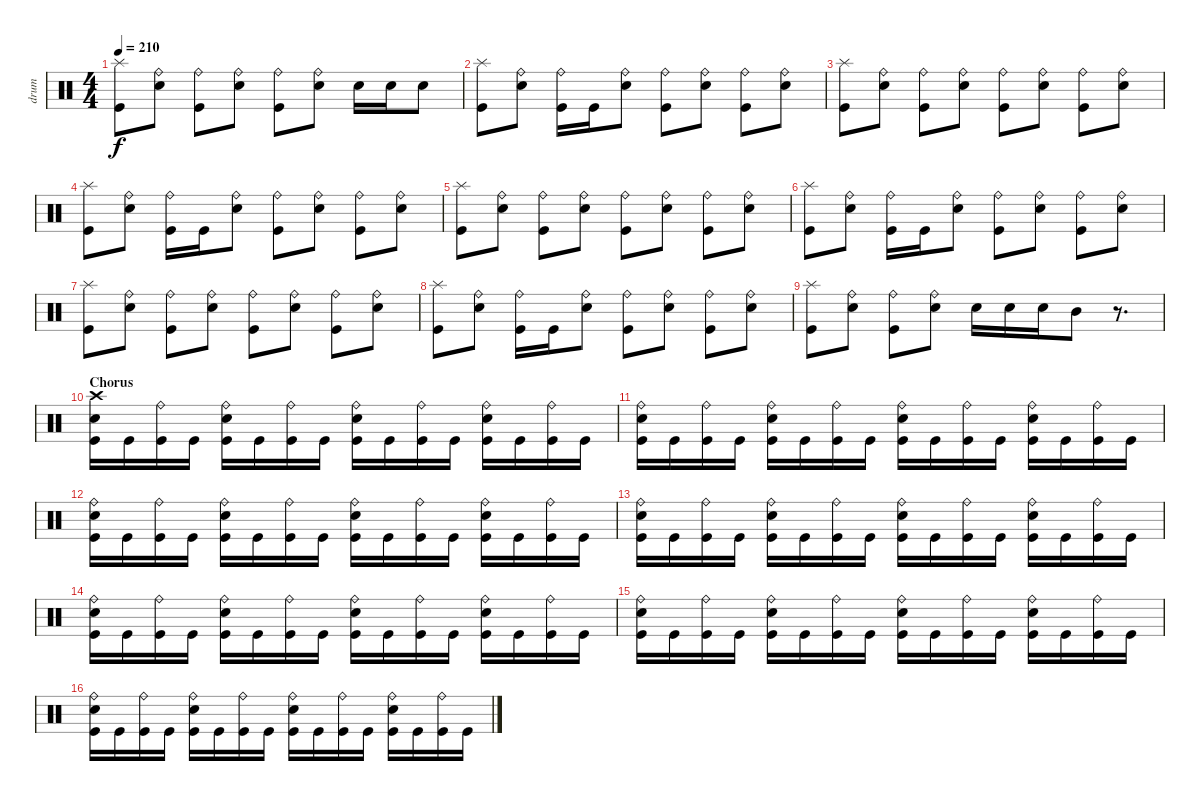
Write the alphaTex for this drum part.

\track ("drum" "drum") {instrument percussion}
\staff {score}
\articulation defaults
\ts (4 4)
\tempo 210
\clef neutral
\ks c
("Kick (hit)" "Splash (hit)").8{dy f} ("Electric Snare (hit)" "Ride (bell)").8 ("Kick (hit)" "Ride (bell)").8 ("Electric Snare (hit)" "Ride (bell)").8 ("Kick (hit)" "Ride (bell)").8 ("Electric Snare (hit)" "Ride (bell)").8 "Electric Snare (hit)".16 "Electric Snare (hit)".16 "Electric Snare (hit)".8 |
("Kick (hit)" "Splash (hit)").8 ("Electric Snare (hit)" "Ride (bell)").8 ("Kick (hit)" "Ride (bell)").16 "Kick (hit)".16 ("Electric Snare (hit)" "Ride (bell)").8 ("Kick (hit)" "Ride (bell)").8 ("Electric Snare (hit)" "Ride (bell)").8 ("Kick (hit)" "Ride (bell)").8 ("Electric Snare (hit)" "Ride (bell)").8 |
("Kick (hit)" "Splash (hit)").8 ("Electric Snare (hit)" "Ride (bell)").8 ("Kick (hit)" "Ride (bell)").8 ("Electric Snare (hit)" "Ride (bell)").8 ("Kick (hit)" "Ride (bell)").8 ("Electric Snare (hit)" "Ride (bell)").8 ("Kick (hit)" "Ride (bell)").8 ("Electric Snare (hit)" "Ride (bell)").8 |
("Kick (hit)" "Splash (hit)").8 ("Electric Snare (hit)" "Ride (bell)").8 ("Kick (hit)" "Ride (bell)").16 "Kick (hit)".16 ("Electric Snare (hit)" "Ride (bell)").8 ("Kick (hit)" "Ride (bell)").8 ("Electric Snare (hit)" "Ride (bell)").8 ("Kick (hit)" "Ride (bell)").8 ("Electric Snare (hit)" "Ride (bell)").8 |
("Kick (hit)" "Splash (hit)").8 ("Electric Snare (hit)" "Ride (bell)").8 ("Kick (hit)" "Ride (bell)").8 ("Electric Snare (hit)" "Ride (bell)").8 ("Kick (hit)" "Ride (bell)").8 ("Electric Snare (hit)" "Ride (bell)").8 ("Kick (hit)" "Ride (bell)").8 ("Electric Snare (hit)" "Ride (bell)").8 |
("Kick (hit)" "Splash (hit)").8 ("Electric Snare (hit)" "Ride (bell)").8 ("Kick (hit)" "Ride (bell)").16 "Kick (hit)".16 ("Electric Snare (hit)" "Ride (bell)").8 ("Kick (hit)" "Ride (bell)").8 ("Electric Snare (hit)" "Ride (bell)").8 ("Kick (hit)" "Ride (bell)").8 ("Electric Snare (hit)" "Ride (bell)").8 |
("Kick (hit)" "Splash (hit)").8 ("Electric Snare (hit)" "Ride (bell)").8 ("Kick (hit)" "Ride (bell)").8 ("Electric Snare (hit)" "Ride (bell)").8 ("Kick (hit)" "Ride (bell)").8 ("Electric Snare (hit)" "Ride (bell)").8 ("Kick (hit)" "Ride (bell)").8 ("Electric Snare (hit)" "Ride (bell)").8 |
("Kick (hit)" "Splash (hit)").8 ("Electric Snare (hit)" "Ride (bell)").8 ("Kick (hit)" "Ride (bell)").16 "Kick (hit)".16 ("Electric Snare (hit)" "Ride (bell)").8 ("Kick (hit)" "Ride (bell)").8 ("Electric Snare (hit)" "Ride (bell)").8 ("Kick (hit)" "Ride (bell)").8 ("Electric Snare (hit)" "Ride (bell)").8 |
("Kick (hit)" "Splash (hit)").8 ("Electric Snare (hit)" "Ride (bell)").8 ("Kick (hit)" "Ride (bell)").8 ("Electric Snare (hit)" "Ride (bell)").8 "Electric Snare (hit)".16 "Electric Snare (hit)".16 "Electric Snare (hit)".16 "Mid Tom (hit)".8 r.8{d} |
\section ("" "Chorus")
("Kick (hit)" "Electric Snare (hit)" "Crash high (hit)").16 "Kick (hit)".16 ("Kick (hit)" "Ride (bell)").16 "Kick (hit)".16 ("Kick (hit)" "Electric Snare (hit)" "Ride (bell)").16 "Kick (hit)".16 ("Kick (hit)" "Ride (bell)").16 "Kick (hit)".16 ("Kick (hit)" "Electric Snare (hit)" "Ride (bell)").16 "Kick (hit)".16 ("Kick (hit)" "Ride (bell)").16 "Kick (hit)".16 ("Kick (hit)" "Electric Snare (hit)" "Ride (bell)").16 "Kick (hit)".16 ("Kick (hit)" "Ride (bell)").16 "Kick (hit)".16 |
("Kick (hit)" "Electric Snare (hit)" "Ride (bell)").16 "Kick (hit)".16 ("Kick (hit)" "Ride (bell)").16 "Kick (hit)".16 ("Kick (hit)" "Electric Snare (hit)" "Ride (bell)").16 "Kick (hit)".16 ("Kick (hit)" "Ride (bell)").16 "Kick (hit)".16 ("Kick (hit)" "Electric Snare (hit)" "Ride (bell)").16 "Kick (hit)".16 ("Kick (hit)" "Ride (bell)").16 "Kick (hit)".16 ("Kick (hit)" "Electric Snare (hit)" "Ride (bell)").16 "Kick (hit)".16 ("Kick (hit)" "Ride (bell)").16 "Kick (hit)".16 |
("Kick (hit)" "Electric Snare (hit)" "Ride (bell)").16 "Kick (hit)".16 ("Kick (hit)" "Ride (bell)").16 "Kick (hit)".16 ("Kick (hit)" "Electric Snare (hit)" "Ride (bell)").16 "Kick (hit)".16 ("Kick (hit)" "Ride (bell)").16 "Kick (hit)".16 ("Kick (hit)" "Electric Snare (hit)" "Ride (bell)").16 "Kick (hit)".16 ("Kick (hit)" "Ride (bell)").16 "Kick (hit)".16 ("Kick (hit)" "Electric Snare (hit)" "Ride (bell)").16 "Kick (hit)".16 ("Kick (hit)" "Ride (bell)").16 "Kick (hit)".16 |
("Kick (hit)" "Electric Snare (hit)" "Ride (bell)").16 "Kick (hit)".16 ("Kick (hit)" "Ride (bell)").16 "Kick (hit)".16 ("Kick (hit)" "Electric Snare (hit)" "Ride (bell)").16 "Kick (hit)".16 ("Kick (hit)" "Ride (bell)").16 "Kick (hit)".16 ("Kick (hit)" "Electric Snare (hit)" "Ride (bell)").16 "Kick (hit)".16 ("Kick (hit)" "Ride (bell)").16 "Kick (hit)".16 ("Kick (hit)" "Electric Snare (hit)" "Ride (bell)").16 "Kick (hit)".16 ("Kick (hit)" "Ride (bell)").16 "Kick (hit)".16 |
("Kick (hit)" "Electric Snare (hit)" "Ride (bell)").16 "Kick (hit)".16 ("Kick (hit)" "Ride (bell)").16 "Kick (hit)".16 ("Kick (hit)" "Electric Snare (hit)" "Ride (bell)").16 "Kick (hit)".16 ("Kick (hit)" "Ride (bell)").16 "Kick (hit)".16 ("Kick (hit)" "Electric Snare (hit)" "Ride (bell)").16 "Kick (hit)".16 ("Kick (hit)" "Ride (bell)").16 "Kick (hit)".16 ("Kick (hit)" "Electric Snare (hit)" "Ride (bell)").16 "Kick (hit)".16 ("Kick (hit)" "Ride (bell)").16 "Kick (hit)".16 |
("Kick (hit)" "Electric Snare (hit)" "Ride (bell)").16 "Kick (hit)".16 ("Kick (hit)" "Ride (bell)").16 "Kick (hit)".16 ("Kick (hit)" "Electric Snare (hit)" "Ride (bell)").16 "Kick (hit)".16 ("Kick (hit)" "Ride (bell)").16 "Kick (hit)".16 ("Kick (hit)" "Electric Snare (hit)" "Ride (bell)").16 "Kick (hit)".16 ("Kick (hit)" "Ride (bell)").16 "Kick (hit)".16 ("Kick (hit)" "Electric Snare (hit)" "Ride (bell)").16 "Kick (hit)".16 ("Kick (hit)" "Ride (bell)").16 "Kick (hit)".16 |
("Kick (hit)" "Electric Snare (hit)" "Ride (bell)").16 "Kick (hit)".16 ("Kick (hit)" "Ride (bell)").16 "Kick (hit)".16 ("Kick (hit)" "Electric Snare (hit)" "Ride (bell)").16 "Kick (hit)".16 ("Kick (hit)" "Ride (bell)").16 "Kick (hit)".16 ("Kick (hit)" "Electric Snare (hit)" "Ride (bell)").16 "Kick (hit)".16 ("Kick (hit)" "Ride (bell)").16 "Kick (hit)".16 ("Kick (hit)" "Electric Snare (hit)" "Ride (bell)").16 "Kick (hit)".16 ("Kick (hit)" "Ride (bell)").16 "Kick (hit)".16
